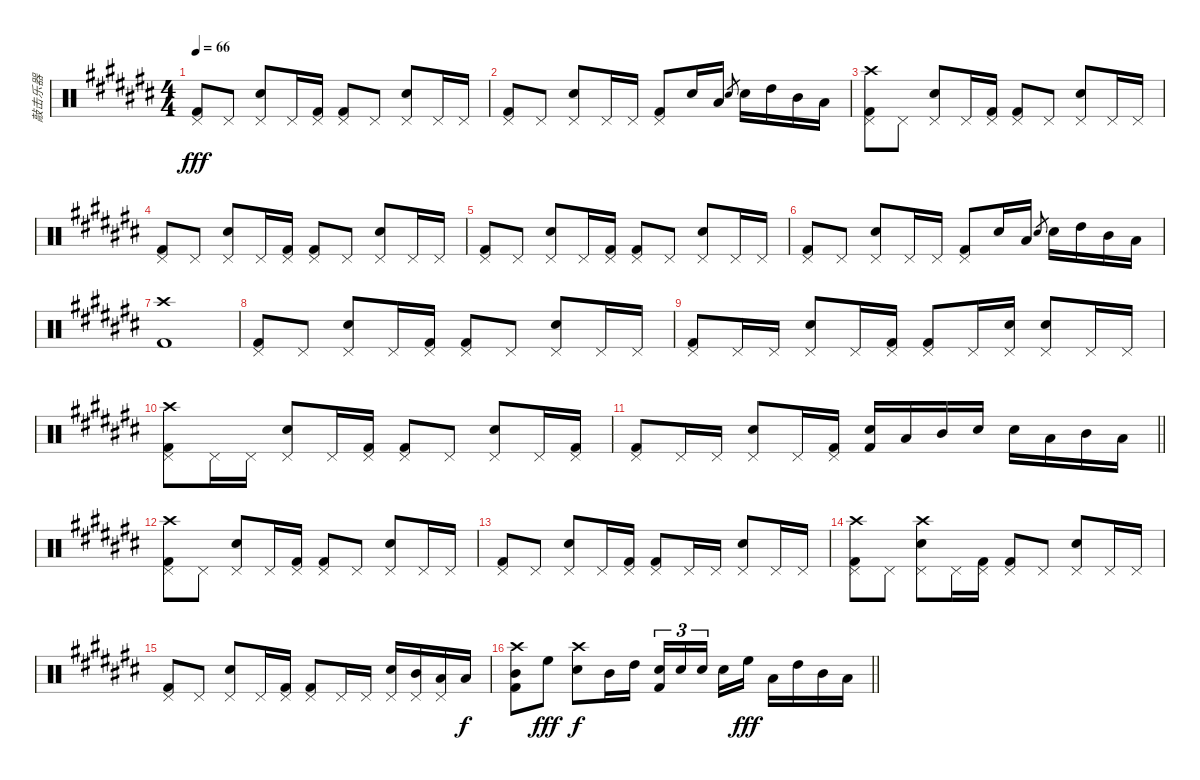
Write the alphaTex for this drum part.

\track ("敲击乐器" "敲击乐器") {instrument percussion}
\staff {score}
\articulation defaults
\ts (4 4)
\tempo 66
\clef neutral
\ks c#
("Pedal Hi-Hat (hit)" "Kick (hit) 2").8{dy fff} "Pedal Hi-Hat (hit)".8 ("Pedal Hi-Hat (hit)" "Snare (hit) 2").8 "Pedal Hi-Hat (hit)".16 ("Pedal Hi-Hat (hit)" "Kick (hit) 2").16 ("Pedal Hi-Hat (hit)" "Kick (hit) 2").8 "Pedal Hi-Hat (hit)".8 ("Pedal Hi-Hat (hit)" "Snare (hit) 2").8 "Pedal Hi-Hat (hit)".16 "Pedal Hi-Hat (hit)".16 |
("Pedal Hi-Hat (hit)" "Kick (hit) 2").8 "Pedal Hi-Hat (hit)".8 ("Pedal Hi-Hat (hit)" "Snare (hit) 2").8 "Pedal Hi-Hat (hit)".16 "Pedal Hi-Hat (hit)".16 ("Pedal Hi-Hat (hit)" "Kick (hit) 2").8 "Snare (hit) 2".16 "Low Tom (hit)".16 "Snare (hit) 2".8{gr} "Snare (hit) 2".16 "High Tom (hit)".16 "Mid Tom (hit)".16 "Low Tom (hit)".16 |
("Crash high (hit)" "Pedal Hi-Hat (hit)" "Kick (hit) 2").8 "Pedal Hi-Hat (hit)".8 ("Pedal Hi-Hat (hit)" "Snare (hit) 2").8 "Pedal Hi-Hat (hit)".16 ("Pedal Hi-Hat (hit)" "Kick (hit) 2").16 ("Pedal Hi-Hat (hit)" "Kick (hit) 2").8 "Pedal Hi-Hat (hit)".8 ("Pedal Hi-Hat (hit)" "Snare (hit) 2").8 "Pedal Hi-Hat (hit)".16 "Pedal Hi-Hat (hit)".16 |
("Pedal Hi-Hat (hit)" "Kick (hit) 2").8 "Pedal Hi-Hat (hit)".8 ("Pedal Hi-Hat (hit)" "Snare (hit) 2").8 "Pedal Hi-Hat (hit)".16 ("Pedal Hi-Hat (hit)" "Kick (hit) 2").16 ("Pedal Hi-Hat (hit)" "Kick (hit) 2").8 "Pedal Hi-Hat (hit)".8 ("Pedal Hi-Hat (hit)" "Snare (hit) 2").8 "Pedal Hi-Hat (hit)".16 "Pedal Hi-Hat (hit)".16 |
("Pedal Hi-Hat (hit)" "Kick (hit) 2").8 "Pedal Hi-Hat (hit)".8 ("Pedal Hi-Hat (hit)" "Snare (hit) 2").8 "Pedal Hi-Hat (hit)".16 ("Pedal Hi-Hat (hit)" "Kick (hit) 2").16 ("Pedal Hi-Hat (hit)" "Kick (hit) 2").8 "Pedal Hi-Hat (hit)".8 ("Pedal Hi-Hat (hit)" "Snare (hit) 2").8 "Pedal Hi-Hat (hit)".16 "Pedal Hi-Hat (hit)".16 |
("Pedal Hi-Hat (hit)" "Kick (hit) 2").8 "Pedal Hi-Hat (hit)".8 ("Pedal Hi-Hat (hit)" "Snare (hit) 2").8 "Pedal Hi-Hat (hit)".16 "Pedal Hi-Hat (hit)".16 ("Pedal Hi-Hat (hit)" "Kick (hit) 2").8 "Snare (hit) 2".16 "Low Tom (hit)".16 "Snare (hit) 2".8{gr} "Snare (hit) 2".16 "High Tom (hit)".16 "Mid Tom (hit)".16 "Low Tom (hit)".16 |
("Crash high (hit)" "Kick (hit) 2").1 |
("Pedal Hi-Hat (hit)" "Kick (hit) 2").8 "Pedal Hi-Hat (hit)".8 ("Pedal Hi-Hat (hit)" "Snare (hit) 2").8 "Pedal Hi-Hat (hit)".16 ("Pedal Hi-Hat (hit)" "Kick (hit) 2").16 ("Pedal Hi-Hat (hit)" "Kick (hit) 2").8 "Pedal Hi-Hat (hit)".8 ("Pedal Hi-Hat (hit)" "Snare (hit) 2").8 "Pedal Hi-Hat (hit)".16 "Pedal Hi-Hat (hit)".16 |
("Pedal Hi-Hat (hit)" "Kick (hit) 2").8 "Pedal Hi-Hat (hit)".16 "Pedal Hi-Hat (hit)".16 ("Pedal Hi-Hat (hit)" "Snare (hit) 2").8 "Pedal Hi-Hat (hit)".16 ("Pedal Hi-Hat (hit)" "Kick (hit) 2").16 ("Pedal Hi-Hat (hit)" "Kick (hit) 2").8 "Pedal Hi-Hat (hit)".16 ("Pedal Hi-Hat (hit)" "Snare (hit) 2").16 ("Pedal Hi-Hat (hit)" "Snare (hit) 2").8 "Pedal Hi-Hat (hit)".16 "Pedal Hi-Hat (hit)".16 |
("Crash high (hit)" "Pedal Hi-Hat (hit)" "Kick (hit) 2").8 "Pedal Hi-Hat (hit)".16 "Pedal Hi-Hat (hit)".16 ("Pedal Hi-Hat (hit)" "Snare (hit) 2").8 "Pedal Hi-Hat (hit)".16 ("Pedal Hi-Hat (hit)" "Kick (hit) 2").16 ("Pedal Hi-Hat (hit)" "Kick (hit) 2").8 "Pedal Hi-Hat (hit)".8 ("Pedal Hi-Hat (hit)" "Snare (hit) 2").8 "Pedal Hi-Hat (hit)".16 ("Pedal Hi-Hat (hit)" "Kick (hit) 2").16 |
\barLineRight lightlight
("Pedal Hi-Hat (hit)" "Kick (hit) 2").8 "Pedal Hi-Hat (hit)".16 "Pedal Hi-Hat (hit)".16 ("Pedal Hi-Hat (hit)" "Snare (hit) 2").8 "Pedal Hi-Hat (hit)".16 ("Pedal Hi-Hat (hit)" "Kick (hit) 2").16 ("Snare (hit) 2" "Kick (hit) 2").16 "Low Tom (hit)".16 "Mid Tom (hit)".16 "Snare (hit) 2".16 "Snare (hit) 2".16 "Low Tom (hit)".16 "Mid Tom (hit)".16 "Low Tom (hit)".16 |
("Crash high (hit)" "Pedal Hi-Hat (hit)" "Kick (hit) 2").8 "Pedal Hi-Hat (hit)".8 ("Pedal Hi-Hat (hit)" "Snare (hit) 2").8 "Pedal Hi-Hat (hit)".16 ("Pedal Hi-Hat (hit)" "Kick (hit) 2").16 ("Pedal Hi-Hat (hit)" "Kick (hit) 2").8 "Pedal Hi-Hat (hit)".8 ("Pedal Hi-Hat (hit)" "Snare (hit) 2").8 "Pedal Hi-Hat (hit)".16 "Pedal Hi-Hat (hit)".16 |
("Pedal Hi-Hat (hit)" "Kick (hit) 2").8 "Pedal Hi-Hat (hit)".8 ("Pedal Hi-Hat (hit)" "Snare (hit) 2").8 "Pedal Hi-Hat (hit)".16 ("Pedal Hi-Hat (hit)" "Kick (hit) 2").16 ("Pedal Hi-Hat (hit)" "Kick (hit) 2").8 "Pedal Hi-Hat (hit)".16 "Pedal Hi-Hat (hit)".16 ("Pedal Hi-Hat (hit)" "Snare (hit) 2").8 "Pedal Hi-Hat (hit)".16 "Pedal Hi-Hat (hit)".16 |
("Crash high (hit)" "Pedal Hi-Hat (hit)" "Kick (hit) 2").8 "Pedal Hi-Hat (hit)".8 ("Crash high (hit)" "Pedal Hi-Hat (hit)" "Snare (hit) 2").8 "Pedal Hi-Hat (hit)".16 ("Pedal Hi-Hat (hit)" "Kick (hit) 2").16 ("Pedal Hi-Hat (hit)" "Kick (hit) 2").8 "Pedal Hi-Hat (hit)".8 ("Pedal Hi-Hat (hit)" "Snare (hit) 2").8 "Pedal Hi-Hat (hit)".16 "Pedal Hi-Hat (hit)".16 |
("Pedal Hi-Hat (hit)" "Kick (hit) 2").8 "Pedal Hi-Hat (hit)".8 ("Pedal Hi-Hat (hit)" "Snare (hit) 2").8 "Pedal Hi-Hat (hit)".16 ("Pedal Hi-Hat (hit)" "Kick (hit) 2").16 ("Pedal Hi-Hat (hit)" "Kick (hit) 2").8 "Pedal Hi-Hat (hit)".16 "Pedal Hi-Hat (hit)".16 ("Pedal Hi-Hat (hit)" "Snare (hit) 2").16 ("Pedal Hi-Hat (hit)" "Mid Tom (hit)").16 ("Pedal Hi-Hat (hit)" "Low Tom (hit)").16 "Low Tom (hit)".16{dy f} |
\barLineRight lightlight
("Crash high (hit)" "Mid Tom (hit)" "Kick (hit) 2").8 "High Floor Tom (hit)".8{dy fff} ("Crash high (hit)" "Snare (hit) 2").8{dy f} "Mid Tom (hit)".16 "High Tom (hit)".16 ("Snare (hit) 2" "Kick (hit) 2").16{tu (3 2)} "Snare (hit) 2".16{tu (3 2)} "Snare (hit) 2".16{tu (3 2) beam splitsecondary} "Snare (hit) 2".16 "High Floor Tom (hit)".16{dy fff} "Low Tom (hit)".16 "High Tom (hit)".16 "Mid Tom (hit)".16 "Low Tom (hit)".16
